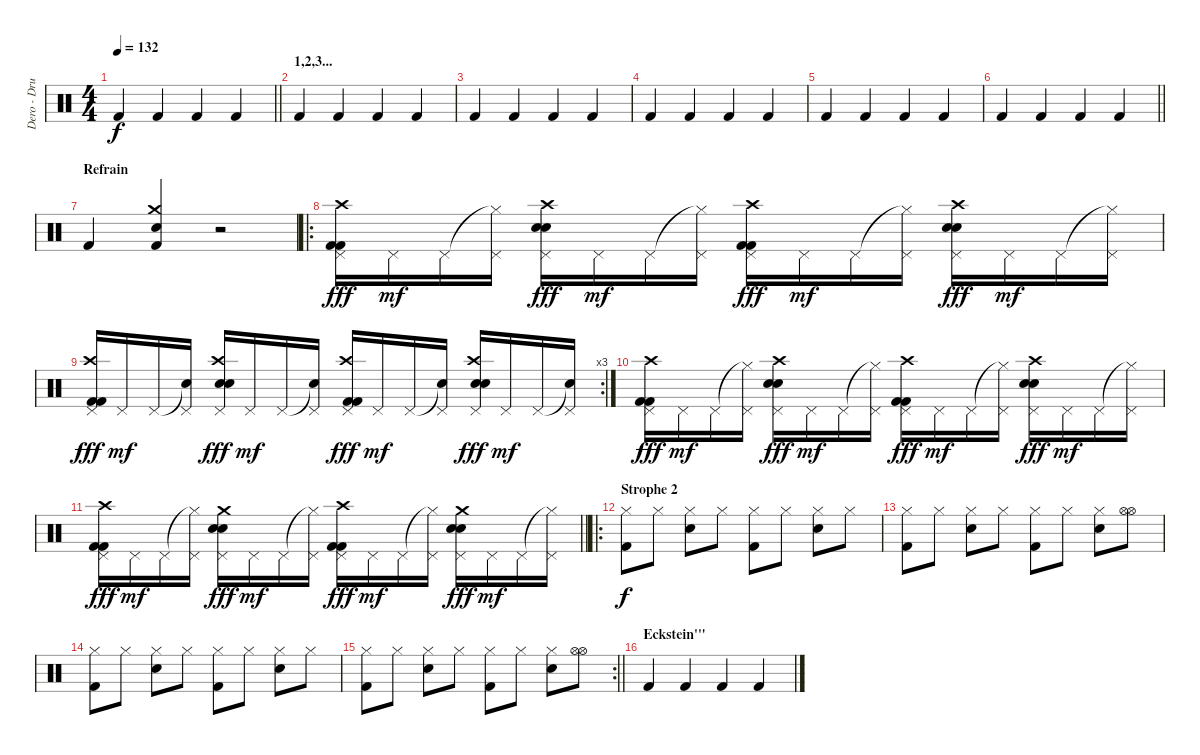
\track ("Dero - Drums" "Dero - Dru") {instrument percussion}
\staff {score}
\articulation defaults
\ts (4 4)
\tempo 132
\clef neutral
\barLineRight lightlight
\ks c "Kick (hit) 2".4{dy f} "Kick (hit) 2".4 "Kick (hit) 2".4 "Kick (hit) 2".4
|
\section ("" "1,2,3...")
"Kick (hit) 2".4 "Kick (hit) 2".4 "Kick (hit) 2".4 "Kick (hit) 2".4 |
"Kick (hit) 2".4 "Kick (hit) 2".4 "Kick (hit) 2".4 "Kick (hit) 2".4 |
"Kick (hit) 2".4 "Kick (hit) 2".4 "Kick (hit) 2".4 "Kick (hit) 2".4 |
"Kick (hit) 2".4 "Kick (hit) 2".4 "Kick (hit) 2".4 "Kick (hit) 2".4 |
\barLineRight lightlight "Kick (hit) 2".4 "Kick (hit) 2".4 "Kick (hit) 2".4 "Kick (hit) 2".4
|
\section ("" "Refrain")
"Kick (hit) 2".4 ("Crash medium (hit)" "Electric Snare (hit)" "Kick (hit) 2").4 r.2 |
\ro
("Crash high (hit)" "Pedal Hi-Hat (hit)" "Kick (hit) 2" "Kick (hit) 2").16{dy fff} "Pedal Hi-Hat (hit)".16{dy mf} "Pedal Hi-Hat (hit)".16 ("Hi-Hat (closed)"{t} "Pedal Hi-Hat (hit)").16 ("Crash high (hit)" "Pedal Hi-Hat (hit)" "Electric Snare (hit)" "Electric Snare (hit)").16{dy fff} "Pedal Hi-Hat (hit)".16{dy mf} "Pedal Hi-Hat (hit)".16 ("Hi-Hat (closed)"{t} "Pedal Hi-Hat (hit)").16 ("Crash high (hit)" "Pedal Hi-Hat (hit)" "Kick (hit) 2" "Kick (hit) 2").16{dy fff} "Pedal Hi-Hat (hit)".16{dy mf} "Pedal Hi-Hat (hit)".16 ("Hi-Hat (closed)"{t} "Pedal Hi-Hat (hit)").16 ("Crash high (hit)" "Pedal Hi-Hat (hit)" "Electric Snare (hit)" "Electric Snare (hit)").16{dy fff} "Pedal Hi-Hat (hit)".16{dy mf} "Pedal Hi-Hat (hit)".16 ("Hi-Hat (closed)"{t} "Pedal Hi-Hat (hit)").16 |
\rc 3
("Crash high (hit)" "Pedal Hi-Hat (hit)" "Kick (hit) 2" "Kick (hit) 2").16{dy fff} "Pedal Hi-Hat (hit)".16{dy mf} "Pedal Hi-Hat (hit)".16 ("Snare (hit)"{t} "Pedal Hi-Hat (hit)").16 ("Crash high (hit)" "Pedal Hi-Hat (hit)" "Electric Snare (hit)" "Electric Snare (hit)").16{dy fff} "Pedal Hi-Hat (hit)".16{dy mf} "Pedal Hi-Hat (hit)".16 ("Snare (hit)"{t} "Pedal Hi-Hat (hit)").16 ("Crash high (hit)" "Pedal Hi-Hat (hit)" "Kick (hit) 2" "Kick (hit) 2").16{dy fff} "Pedal Hi-Hat (hit)".16{dy mf} "Pedal Hi-Hat (hit)".16 ("Snare (hit)"{t} "Pedal Hi-Hat (hit)").16 ("Crash high (hit)" "Pedal Hi-Hat (hit)" "Electric Snare (hit)" "Electric Snare (hit)").16{dy fff} "Pedal Hi-Hat (hit)".16{dy mf} "Pedal Hi-Hat (hit)".16 ("Snare (hit)"{t} "Pedal Hi-Hat (hit)").16 |
("Crash high (hit)" "Pedal Hi-Hat (hit)" "Kick (hit) 2" "Kick (hit) 2").16{dy fff} "Pedal Hi-Hat (hit)".16{dy mf} "Pedal Hi-Hat (hit)".16 ("Hi-Hat (closed)"{t} "Pedal Hi-Hat (hit)").16 ("Crash high (hit)" "Pedal Hi-Hat (hit)" "Electric Snare (hit)" "Electric Snare (hit)").16{dy fff} "Pedal Hi-Hat (hit)".16{dy mf} "Pedal Hi-Hat (hit)".16 ("Hi-Hat (closed)"{t} "Pedal Hi-Hat (hit)").16 ("Crash high (hit)" "Pedal Hi-Hat (hit)" "Kick (hit) 2" "Kick (hit) 2").16{dy fff} "Pedal Hi-Hat (hit)".16{dy mf} "Pedal Hi-Hat (hit)".16 ("Hi-Hat (closed)"{t} "Pedal Hi-Hat (hit)").16 ("Crash high (hit)" "Pedal Hi-Hat (hit)" "Electric Snare (hit)" "Electric Snare (hit)").16{dy fff} "Pedal Hi-Hat (hit)".16{dy mf} "Pedal Hi-Hat (hit)".16 ("Hi-Hat (closed)"{t} "Pedal Hi-Hat (hit)").16 |
\barLineRight lightlight
("Crash high (hit)" "Pedal Hi-Hat (hit)" "Kick (hit) 2" "Kick (hit) 2").16{dy fff} "Pedal Hi-Hat (hit)".16{dy mf} "Pedal Hi-Hat (hit)".16 ("Hi-Hat (closed)"{t} "Pedal Hi-Hat (hit)").16 ("Crash medium (hit)" "Pedal Hi-Hat (hit)" "Electric Snare (hit)" "Electric Snare (hit)").16{dy fff} "Pedal Hi-Hat (hit)".16{dy mf} "Pedal Hi-Hat (hit)".16 ("Hi-Hat (closed)"{t} "Pedal Hi-Hat (hit)").16 ("Crash high (hit)" "Pedal Hi-Hat (hit)" "Kick (hit) 2" "Kick (hit) 2").16{dy fff} "Pedal Hi-Hat (hit)".16{dy mf} "Pedal Hi-Hat (hit)".16 ("Hi-Hat (closed)"{t} "Pedal Hi-Hat (hit)").16 ("Crash medium (hit)" "Pedal Hi-Hat (hit)" "Electric Snare (hit)" "Electric Snare (hit)").16{dy fff} "Pedal Hi-Hat (hit)".16{dy mf} "Pedal Hi-Hat (hit)".16 ("Hi-Hat (closed)"{t} "Pedal Hi-Hat (hit)").16 |
\ro
\section ("" "Strophe 2")
("Hi-Hat (closed)" "Kick (hit) 2").8{dy f} "Hi-Hat (closed)".8 ("Hi-Hat (closed)" "Electric Snare (hit)").8 "Hi-Hat (closed)".8 ("Hi-Hat (closed)" "Kick (hit) 2").8 "Hi-Hat (closed)".8 ("Hi-Hat (closed)" "Electric Snare (hit)").8 "Hi-Hat (closed)".8 |
("Hi-Hat (closed)" "Kick (hit) 2").8 "Hi-Hat (closed)".8 ("Hi-Hat (closed)" "Electric Snare (hit)").8 "Hi-Hat (closed)".8 ("Hi-Hat (closed)" "Kick (hit) 2").8 "Hi-Hat (closed)".8 ("Hi-Hat (closed)" "Electric Snare (hit)").8 ("Hi-Hat (open)" "Hi-Hat (open)").8 |
("Hi-Hat (closed)" "Kick (hit) 2").8 "Hi-Hat (closed)".8 ("Hi-Hat (closed)" "Electric Snare (hit)").8 "Hi-Hat (closed)".8 ("Hi-Hat (closed)" "Kick (hit) 2").8 "Hi-Hat (closed)".8 ("Hi-Hat (closed)" "Electric Snare (hit)").8 "Hi-Hat (closed)".8 |
\rc 2
\barLineRight lightlight
("Hi-Hat (closed)" "Kick (hit) 2").8 "Hi-Hat (closed)".8 ("Hi-Hat (closed)" "Electric Snare (hit)").8 "Hi-Hat (closed)".8 ("Hi-Hat (closed)" "Kick (hit) 2").8 "Hi-Hat (closed)".8 ("Hi-Hat (closed)" "Electric Snare (hit)").8 ("Hi-Hat (open)" "Hi-Hat (open)").8 |
\section ("" "Eckstein'''")
"Kick (hit) 2".4 "Kick (hit) 2".4 "Kick (hit) 2".4 "Kick (hit) 2".4
